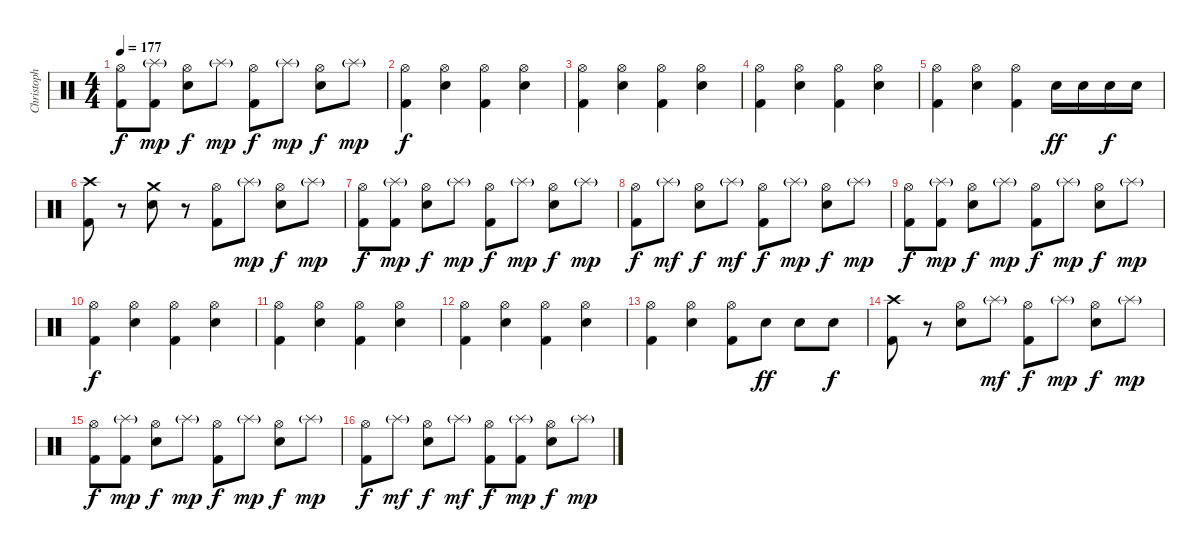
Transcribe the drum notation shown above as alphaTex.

\track ("Christoph Schneider [drums]" "Christoph ") {instrument percussion}
\staff {score}
\articulation defaults
\ts (4 4)
\tempo 177
\clef neutral
\ks c
("Hi-Hat (open)" "Kick (hit) 2").8{dy f} ("Splash (hit)"{g} "Kick (hit) 2").8{dy mp} ("Hi-Hat (open)" "Snare (hit) 2").8{dy f} "Splash (hit)"{g}.8{dy mp} ("Hi-Hat (open)" "Kick (hit) 2").8{dy f} "Splash (hit)"{g}.8{dy mp} ("Hi-Hat (open)" "Snare (hit) 2").8{dy f} "Splash (hit)"{g}.8{dy mp} |
("Hi-Hat (open)" "Kick (hit) 2").4{dy f} ("Hi-Hat (open)" "Snare (hit) 2").4 ("Hi-Hat (open)" "Kick (hit) 2").4 ("Hi-Hat (open)" "Snare (hit) 2").4 |
("Hi-Hat (open)" "Kick (hit) 2").4 ("Hi-Hat (open)" "Snare (hit) 2").4 ("Hi-Hat (open)" "Kick (hit) 2").4 ("Hi-Hat (open)" "Snare (hit) 2").4 |
("Hi-Hat (open)" "Kick (hit) 2").4 ("Hi-Hat (open)" "Snare (hit) 2").4 ("Hi-Hat (open)" "Kick (hit) 2").4 ("Hi-Hat (open)" "Snare (hit) 2").4 |
("Hi-Hat (open)" "Kick (hit) 2").4 ("Hi-Hat (open)" "Snare (hit) 2").4 ("Hi-Hat (open)" "Kick (hit) 2").4 "Snare (hit) 2".16{dy ff} "Snare (hit) 2".16 "Snare (hit) 2".16{dy f} "Snare (hit) 2".16 |
("Crash high (hit)" "Kick (hit) 2").8 r.8 ("Crash medium (hit)" "Snare (hit) 2").8 r.8 ("Hi-Hat (open)" "Kick (hit) 2").8 "Splash (hit)"{g}.8{dy mp} ("Hi-Hat (open)" "Snare (hit) 2").8{dy f} "Splash (hit)"{g}.8{dy mp} |
("Hi-Hat (open)" "Kick (hit) 2").8{dy f} ("Splash (hit)"{g} "Kick (hit) 2").8{dy mp} ("Hi-Hat (open)" "Snare (hit) 2").8{dy f} "Splash (hit)"{g}.8{dy mp} ("Hi-Hat (open)" "Kick (hit) 2").8{dy f} "Splash (hit)"{g}.8{dy mp} ("Hi-Hat (open)" "Snare (hit) 2").8{dy f} "Splash (hit)"{g}.8{dy mp} |
("Hi-Hat (open)" "Kick (hit) 2").8{dy f} "Splash (hit)"{g}.8{dy mf} ("Hi-Hat (open)" "Snare (hit) 2").8{dy f} "Splash (hit)"{g}.8{dy mf} ("Hi-Hat (open)" "Kick (hit) 2").8{dy f} "Splash (hit)"{g}.8{dy mp} ("Hi-Hat (open)" "Snare (hit) 2").8{dy f} "Splash (hit)"{g}.8{dy mp} |
("Hi-Hat (open)" "Kick (hit) 2").8{dy f} ("Splash (hit)"{g} "Kick (hit) 2").8{dy mp} ("Hi-Hat (open)" "Snare (hit) 2").8{dy f} "Splash (hit)"{g}.8{dy mp} ("Hi-Hat (open)" "Kick (hit) 2").8{dy f} "Splash (hit)"{g}.8{dy mp} ("Hi-Hat (open)" "Snare (hit) 2").8{dy f} "Splash (hit)"{g}.8{dy mp} |
("Hi-Hat (open)" "Kick (hit) 2").4{dy f} ("Hi-Hat (open)" "Snare (hit) 2").4 ("Hi-Hat (open)" "Kick (hit) 2").4 ("Hi-Hat (open)" "Snare (hit) 2").4 |
("Hi-Hat (open)" "Kick (hit) 2").4 ("Hi-Hat (open)" "Snare (hit) 2").4 ("Hi-Hat (open)" "Kick (hit) 2").4 ("Hi-Hat (open)" "Snare (hit) 2").4 |
("Hi-Hat (open)" "Kick (hit) 2").4 ("Hi-Hat (open)" "Snare (hit) 2").4 ("Hi-Hat (open)" "Kick (hit) 2").4 ("Hi-Hat (open)" "Snare (hit) 2").4 |
("Hi-Hat (open)" "Kick (hit) 2").4 ("Hi-Hat (open)" "Snare (hit) 2").4 ("Hi-Hat (open)" "Kick (hit) 2").8 "Snare (hit) 2".8{dy ff} "Snare (hit) 2".8 "Snare (hit) 2".8{dy f} |
("Crash high (hit)" "Kick (hit) 2").8 r.8 ("Hi-Hat (open)" "Snare (hit) 2").8 "Splash (hit)"{g}.8{dy mf} ("Hi-Hat (open)" "Kick (hit) 2").8{dy f} "Splash (hit)"{g}.8{dy mp} ("Hi-Hat (open)" "Snare (hit) 2").8{dy f} "Splash (hit)"{g}.8{dy mp} |
("Hi-Hat (open)" "Kick (hit) 2").8{dy f} ("Splash (hit)"{g} "Kick (hit) 2").8{dy mp} ("Hi-Hat (open)" "Snare (hit) 2").8{dy f} "Splash (hit)"{g}.8{dy mp} ("Hi-Hat (open)" "Kick (hit) 2").8{dy f} "Splash (hit)"{g}.8{dy mp} ("Hi-Hat (open)" "Snare (hit) 2").8{dy f} "Splash (hit)"{g}.8{dy mp} |
("Hi-Hat (open)" "Kick (hit) 2").8{dy f} "Splash (hit)"{g}.8{dy mf} ("Hi-Hat (open)" "Snare (hit) 2").8{dy f} "Splash (hit)"{g}.8{dy mf} ("Hi-Hat (open)" "Kick (hit) 2").8{dy f} ("Splash (hit)"{g} "Kick (hit) 2").8{dy mp} ("Hi-Hat (open)" "Snare (hit) 2").8{dy f} "Splash (hit)"{g}.8{dy mp}
